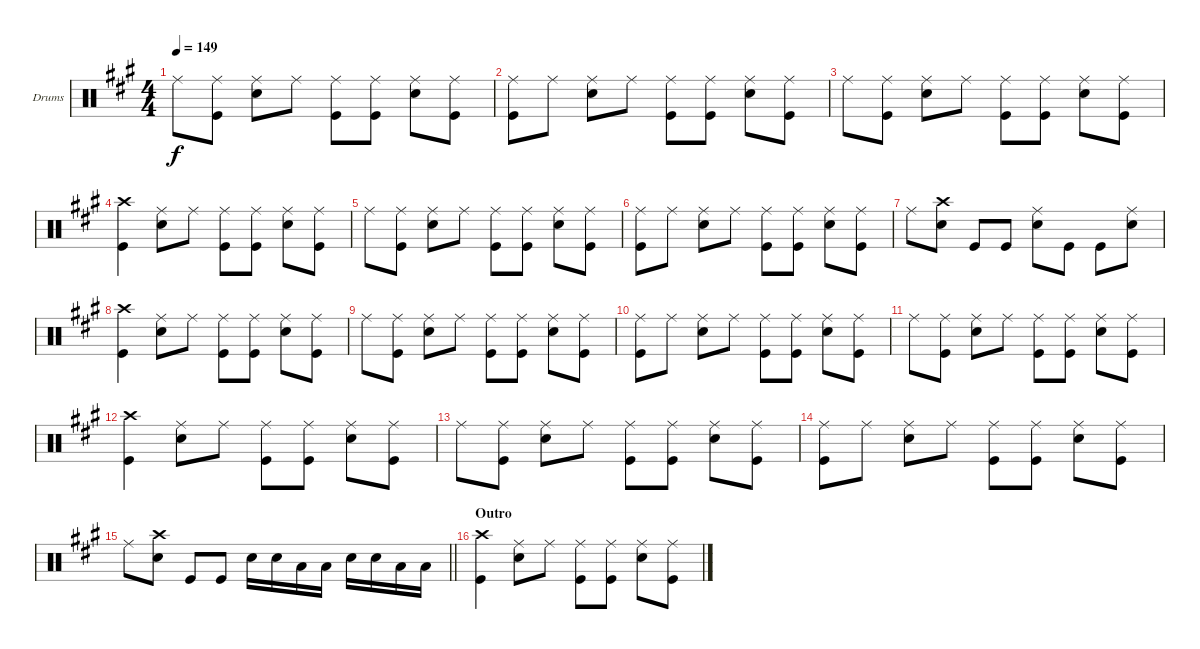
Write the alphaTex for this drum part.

\defaultSystemsLayout 4
\bracketExtendMode groupsimilarinstruments
\firstSystemTrackNameOrientation horizontal
\otherSystemsTrackNameOrientation horizontal
\track ("Drums" "Drums") {instrument percussion}
\staff {score}
\articulation defaults
\ts (4 4)
\tempo 149
\clef neutral
\ks a "Ride (middle)".8{dy f}
("Ride (middle)" "Kick (hit)").8 ("Ride (middle)" "Snare (hit) 2").8 "Ride (middle)".8 ("Ride (middle)" "Kick (hit)").8 ("Ride (middle)" "Kick (hit)").8 ("Ride (middle)" "Snare (hit) 2").8 ("Ride (middle)" "Kick (hit)").8 |
("Kick (hit)" "Ride (middle)").8 "Ride (middle)".8 ("Ride (middle)" "Snare (hit) 2").8 "Ride (middle)".8 ("Ride (middle)" "Kick (hit)").8 ("Ride (middle)" "Kick (hit)").8 ("Ride (middle)" "Snare (hit) 2").8 ("Ride (middle)" "Kick (hit)").8 |
"Ride (middle)".8 ("Ride (middle)" "Kick (hit)").8 ("Ride (middle)" "Snare (hit) 2").8 "Ride (middle)".8 ("Ride (middle)" "Kick (hit)").8 ("Ride (middle)" "Kick (hit)").8 ("Ride (middle)" "Snare (hit) 2").8 ("Ride (middle)" "Kick (hit)").8 |
("Kick (hit)" "Crash high (hit)").4 ("Ride (middle)" "Snare (hit) 2").8 "Ride (middle)".8 ("Ride (middle)" "Kick (hit)").8 ("Ride (middle)" "Kick (hit)").8 ("Ride (middle)" "Snare (hit) 2").8 ("Ride (middle)" "Kick (hit)").8 |
"Ride (middle)".8 ("Ride (middle)" "Kick (hit)").8 ("Ride (middle)" "Snare (hit) 2").8 "Ride (middle)".8 ("Ride (middle)" "Kick (hit)").8 ("Ride (middle)" "Kick (hit)").8 ("Ride (middle)" "Snare (hit) 2").8 ("Ride (middle)" "Kick (hit)").8 |
("Kick (hit)" "Ride (middle)").8 "Ride (middle)".8 ("Ride (middle)" "Snare (hit) 2").8 "Ride (middle)".8 ("Ride (middle)" "Kick (hit)").8 ("Ride (middle)" "Kick (hit)").8 ("Ride (middle)" "Snare (hit) 2").8 ("Ride (middle)" "Kick (hit)").8 |
"Ride (middle)".8 ("Snare (hit) 2" "Crash high (hit)").8 "Kick (hit)".8 "Kick (hit)".8 ("Snare (hit) 2" "Ride (middle)").8 "Kick (hit)".8 "Kick (hit)".8 ("Snare (hit) 2" "Ride (middle)").8 |
("Kick (hit)" "Crash high (hit)").4 ("Ride (middle)" "Snare (hit) 2").8 "Ride (middle)".8 ("Ride (middle)" "Kick (hit)").8 ("Ride (middle)" "Kick (hit)").8 ("Ride (middle)" "Snare (hit) 2").8 ("Ride (middle)" "Kick (hit)").8 |
"Ride (middle)".8 ("Ride (middle)" "Kick (hit)").8 ("Ride (middle)" "Snare (hit) 2").8 "Ride (middle)".8 ("Ride (middle)" "Kick (hit)").8 ("Ride (middle)" "Kick (hit)").8 ("Ride (middle)" "Snare (hit) 2").8 ("Ride (middle)" "Kick (hit)").8 |
("Kick (hit)" "Ride (middle)").8 "Ride (middle)".8 ("Ride (middle)" "Snare (hit) 2").8 "Ride (middle)".8 ("Ride (middle)" "Kick (hit)").8 ("Ride (middle)" "Kick (hit)").8 ("Ride (middle)" "Snare (hit) 2").8 ("Ride (middle)" "Kick (hit)").8 |
"Ride (middle)".8 ("Ride (middle)" "Kick (hit)").8 ("Ride (middle)" "Snare (hit) 2").8 "Ride (middle)".8 ("Ride (middle)" "Kick (hit)").8 ("Ride (middle)" "Kick (hit)").8 ("Ride (middle)" "Snare (hit) 2").8 ("Ride (middle)" "Kick (hit)").8 |
("Kick (hit)" "Crash high (hit)").4 ("Ride (middle)" "Snare (hit) 2").8 "Ride (middle)".8 ("Ride (middle)" "Kick (hit)").8 ("Ride (middle)" "Kick (hit)").8 ("Ride (middle)" "Snare (hit) 2").8 ("Ride (middle)" "Kick (hit)").8 |
"Ride (middle)".8 ("Ride (middle)" "Kick (hit)").8 ("Ride (middle)" "Snare (hit) 2").8 "Ride (middle)".8 ("Ride (middle)" "Kick (hit)").8 ("Ride (middle)" "Kick (hit)").8 ("Ride (middle)" "Snare (hit) 2").8 ("Ride (middle)" "Kick (hit)").8 |
("Kick (hit)" "Ride (middle)").8 "Ride (middle)".8 ("Ride (middle)" "Snare (hit) 2").8 "Ride (middle)".8 ("Ride (middle)" "Kick (hit)").8 ("Ride (middle)" "Kick (hit)").8 ("Ride (middle)" "Snare (hit) 2").8 ("Ride (middle)" "Kick (hit)").8 |
\barLineRight lightlight "Ride (middle)".8
("Snare (hit) 2" "Crash high (hit)").8 "Kick (hit)".8 "Kick (hit)".8 "Snare (hit) 2".16 "Snare (hit) 2".16 "Low Tom (hit)".16 "Low Tom (hit)".16 "Snare (hit) 2".16 "Snare (hit) 2".16 "Low Tom (hit)".16 "Low Tom (hit)".16 |
\section ("" "Outro")
("Kick (hit)" "Crash high (hit)").4 ("Ride (middle)" "Snare (hit) 2").8 "Ride (middle)".8 ("Ride (middle)" "Kick (hit)").8 ("Ride (middle)" "Kick (hit)").8 ("Ride (middle)" "Snare (hit) 2").8 ("Ride (middle)" "Kick (hit)").8
